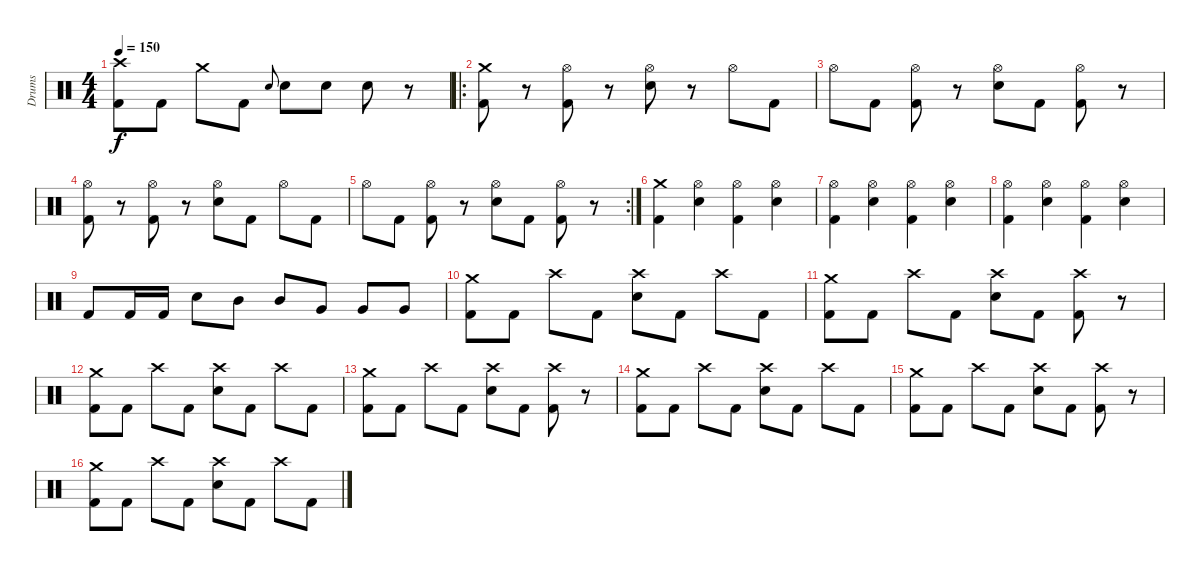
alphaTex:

\track ("Drums" "Drums") {instrument percussion}
\staff {score}
\articulation defaults
\ts (4 4)
\tempo 150
\clef neutral
\ks c
("Kick (hit) 2" "Crash high (hit)").8{dy f} "Kick (hit) 2".8 "Crash medium (hit)".8 "Kick (hit) 2".8 "Electric Snare (hit)".8{gr onbeat} "Electric Snare (hit)".8 "Electric Snare (hit)".8 "Electric Snare (hit)".8 r.8 |
\ro
("Kick (hit) 2" "Crash medium (hit)").8 r.8 ("Kick (hit) 2" "Hi-Hat (open)").8 r.8 ("Electric Snare (hit)" "Hi-Hat (open)").8 r.8 "Hi-Hat (open)".8 "Kick (hit) 2".8 |
"Hi-Hat (open)".8 "Kick (hit) 2".8 ("Kick (hit) 2" "Hi-Hat (open)").8 r.8 ("Electric Snare (hit)" "Hi-Hat (open)").8 "Kick (hit) 2".8 ("Kick (hit) 2" "Hi-Hat (open)").8 r.8 |
("Kick (hit) 2" "Hi-Hat (open)").8 r.8 ("Kick (hit) 2" "Hi-Hat (open)").8 r.8 ("Electric Snare (hit)" "Hi-Hat (open)").8 "Kick (hit) 2".8 "Hi-Hat (open)".8 "Kick (hit) 2".8 |
\rc 2 "Hi-Hat (open)".8 "Kick (hit) 2".8
("Kick (hit) 2" "Hi-Hat (open)").8 r.8 ("Electric Snare (hit)" "Hi-Hat (open)").8 "Kick (hit) 2".8 ("Kick (hit) 2" "Hi-Hat (open)").8 r.8 |
("Crash medium (hit)" "Kick (hit) 2").4 ("Hi-Hat (open)" "Electric Snare (hit)").4 ("Hi-Hat (open)" "Kick (hit) 2").4 ("Hi-Hat (open)" "Electric Snare (hit)").4 |
("Hi-Hat (open)" "Kick (hit) 2").4 ("Hi-Hat (open)" "Electric Snare (hit)").4 ("Hi-Hat (open)" "Kick (hit) 2").4 ("Hi-Hat (open)" "Electric Snare (hit)").4 |
("Hi-Hat (open)" "Kick (hit) 2").4 ("Hi-Hat (open)" "Electric Snare (hit)").4 ("Hi-Hat (open)" "Kick (hit) 2").4 ("Hi-Hat (open)" "Electric Snare (hit)").4 |
"Kick (hit) 2".8 "Kick (hit) 2".16 "Kick (hit) 2".16 "Electric Snare (hit)".8 "Mid Tom (hit)".8 "Mid Tom (hit)".8 "Very Low Tom (hit)".8 "Very Low Tom (hit)".8 "Very Low Tom (hit)".8 |
("Kick (hit) 2" "Crash medium (hit)").8 "Kick (hit) 2".8 "Crash high (hit)".8 "Kick (hit) 2".8 ("Electric Snare (hit)" "Crash high (hit)").8 "Kick (hit) 2".8 "Crash high (hit)".8 "Kick (hit) 2".8 |
("Kick (hit) 2" "Crash medium (hit)").8 "Kick (hit) 2".8 "Crash high (hit)".8 "Kick (hit) 2".8 ("Electric Snare (hit)" "Crash high (hit)").8 "Kick (hit) 2".8 ("Kick (hit) 2" "Crash high (hit)").8 r.8 |
("Kick (hit) 2" "Crash medium (hit)").8 "Kick (hit) 2".8 "Crash high (hit)".8 "Kick (hit) 2".8 ("Electric Snare (hit)" "Crash high (hit)").8 "Kick (hit) 2".8 "Crash high (hit)".8 "Kick (hit) 2".8 |
("Kick (hit) 2" "Crash medium (hit)").8 "Kick (hit) 2".8 "Crash high (hit)".8 "Kick (hit) 2".8 ("Electric Snare (hit)" "Crash high (hit)").8 "Kick (hit) 2".8 ("Kick (hit) 2" "Crash high (hit)").8 r.8 |
("Kick (hit) 2" "Crash medium (hit)").8 "Kick (hit) 2".8 "Crash high (hit)".8 "Kick (hit) 2".8 ("Electric Snare (hit)" "Crash high (hit)").8 "Kick (hit) 2".8 "Crash high (hit)".8 "Kick (hit) 2".8 |
("Kick (hit) 2" "Crash medium (hit)").8 "Kick (hit) 2".8 "Crash high (hit)".8 "Kick (hit) 2".8 ("Electric Snare (hit)" "Crash high (hit)").8 "Kick (hit) 2".8 ("Kick (hit) 2" "Crash high (hit)").8 r.8 |
("Kick (hit) 2" "Crash medium (hit)").8 "Kick (hit) 2".8 "Crash high (hit)".8 "Kick (hit) 2".8 ("Electric Snare (hit)" "Crash high (hit)").8 "Kick (hit) 2".8 "Crash high (hit)".8 "Kick (hit) 2".8
